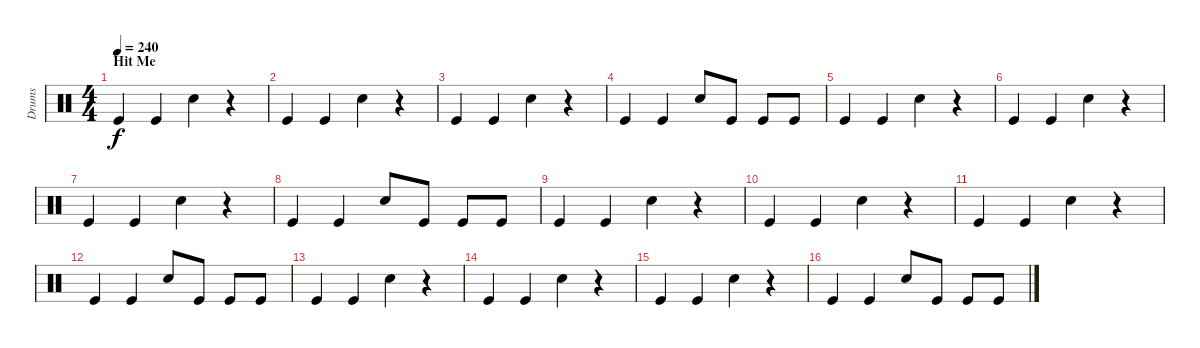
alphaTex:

\track ("Drums" "Drums") {instrument percussion}
\staff {score}
\articulation defaults
\ts (4 4)
\section ("" "Hit Me")
\tempo 240
\clef neutral
\ks c "Kick (hit)".4{dy f} "Kick (hit)".4 "Snare (hit) 2".4
r.4 |
"Kick (hit)".4 "Kick (hit)".4 "Snare (hit) 2".4 r.4 |
"Kick (hit)".4 "Kick (hit)".4 "Snare (hit) 2".4 r.4 |
"Kick (hit)".4 "Kick (hit)".4 "Snare (hit) 2".8 "Kick (hit)".8 "Kick (hit)".8 "Kick (hit)".8 |
"Kick (hit)".4 "Kick (hit)".4 "Snare (hit) 2".4 r.4 |
"Kick (hit)".4 "Kick (hit)".4 "Snare (hit) 2".4 r.4 |
"Kick (hit)".4 "Kick (hit)".4 "Snare (hit) 2".4 r.4 |
"Kick (hit)".4 "Kick (hit)".4 "Snare (hit) 2".8 "Kick (hit)".8 "Kick (hit)".8 "Kick (hit)".8 |
"Kick (hit)".4 "Kick (hit)".4 "Snare (hit) 2".4 r.4 |
"Kick (hit)".4 "Kick (hit)".4 "Snare (hit) 2".4 r.4 |
"Kick (hit)".4 "Kick (hit)".4 "Snare (hit) 2".4 r.4 |
"Kick (hit)".4 "Kick (hit)".4 "Snare (hit) 2".8 "Kick (hit)".8 "Kick (hit)".8 "Kick (hit)".8 |
"Kick (hit)".4 "Kick (hit)".4 "Snare (hit) 2".4 r.4 |
"Kick (hit)".4 "Kick (hit)".4 "Snare (hit) 2".4 r.4 |
"Kick (hit)".4 "Kick (hit)".4 "Snare (hit) 2".4 r.4 |
"Kick (hit)".4 "Kick (hit)".4 "Snare (hit) 2".8 "Kick (hit)".8 "Kick (hit)".8 "Kick (hit)".8
